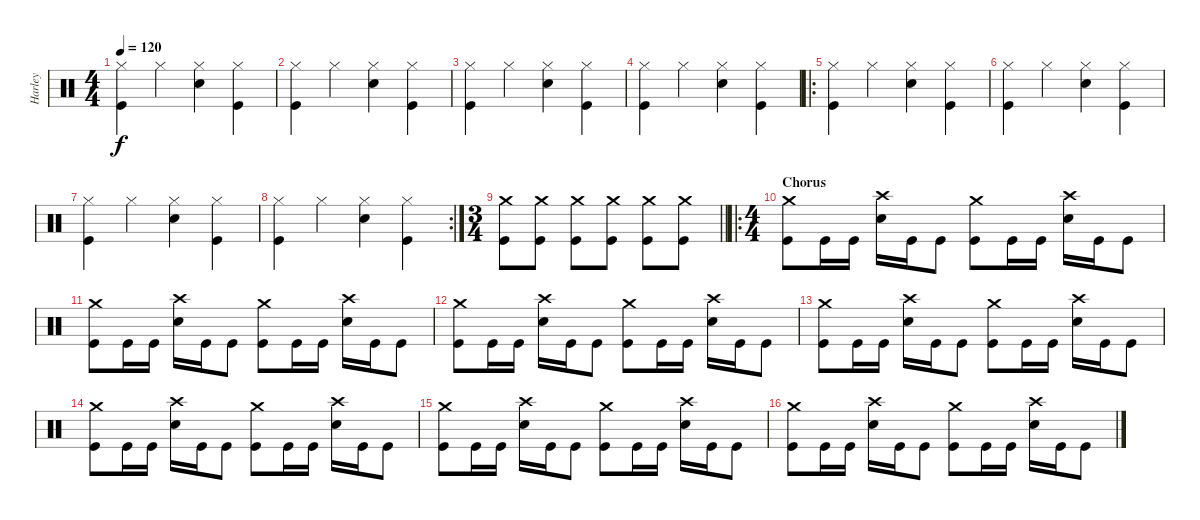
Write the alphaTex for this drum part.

\track ("Harley" "Harley") {instrument percussion}
\staff {score}
\articulation defaults
\ts (4 4)
\tempo 120
\clef neutral
\ks c
("Hi-Hat (closed)" "Kick (hit)").4{dy f} "Hi-Hat (closed)".4 ("Hi-Hat (closed)" "Snare (hit) 2").4 ("Hi-Hat (closed)" "Kick (hit)").4 |
("Hi-Hat (closed)" "Kick (hit)").4 "Hi-Hat (closed)".4 ("Hi-Hat (closed)" "Snare (hit) 2").4 ("Hi-Hat (closed)" "Kick (hit)").4 |
("Hi-Hat (closed)" "Kick (hit)").4 "Hi-Hat (closed)".4 ("Hi-Hat (closed)" "Snare (hit) 2").4 ("Hi-Hat (closed)" "Kick (hit)").4 |
("Hi-Hat (closed)" "Kick (hit)").4 "Hi-Hat (closed)".4 ("Hi-Hat (closed)" "Snare (hit) 2").4 ("Hi-Hat (closed)" "Kick (hit)").4 |
\ro
("Hi-Hat (closed)" "Kick (hit)").4 "Hi-Hat (closed)".4 ("Hi-Hat (closed)" "Snare (hit) 2").4 ("Hi-Hat (closed)" "Kick (hit)").4 |
("Hi-Hat (closed)" "Kick (hit)").4 "Hi-Hat (closed)".4 ("Hi-Hat (closed)" "Snare (hit) 2").4 ("Hi-Hat (closed)" "Kick (hit)").4 |
("Hi-Hat (closed)" "Kick (hit)").4 "Hi-Hat (closed)".4 ("Hi-Hat (closed)" "Snare (hit) 2").4 ("Hi-Hat (closed)" "Kick (hit)").4 |
\rc 2
("Hi-Hat (closed)" "Kick (hit)").4 "Hi-Hat (closed)".4 ("Hi-Hat (closed)" "Snare (hit) 2").4 ("Hi-Hat (closed)" "Kick (hit)").4 |
\ts (3 4)
\barLineRight lightlight
("Crash medium (hit)" "Kick (hit)").8 ("Crash medium (hit)" "Kick (hit)").8 ("Crash medium (hit)" "Kick (hit)").8 ("Crash medium (hit)" "Kick (hit)").8 ("Crash medium (hit)" "Kick (hit)").8 ("Crash medium (hit)" "Kick (hit)").8 |
\ro
\ts (4 4)
\section ("" "Chorus")
("Crash medium (hit)" "Kick (hit)").8 "Kick (hit)".16 "Kick (hit)".16 ("Crash high (hit)" "Snare (hit) 2").16 "Kick (hit)".16 "Kick (hit)".8 ("Crash medium (hit)" "Kick (hit)").8 "Kick (hit)".16 "Kick (hit)".16 ("Crash high (hit)" "Snare (hit) 2").16 "Kick (hit)".16 "Kick (hit)".8 |
("Crash medium (hit)" "Kick (hit)").8 "Kick (hit)".16 "Kick (hit)".16 ("Crash high (hit)" "Snare (hit) 2").16 "Kick (hit)".16 "Kick (hit)".8 ("Crash medium (hit)" "Kick (hit)").8 "Kick (hit)".16 "Kick (hit)".16 ("Crash high (hit)" "Snare (hit) 2").16 "Kick (hit)".16 "Kick (hit)".8 |
("Crash medium (hit)" "Kick (hit)").8 "Kick (hit)".16 "Kick (hit)".16 ("Crash high (hit)" "Snare (hit) 2").16 "Kick (hit)".16 "Kick (hit)".8 ("Crash medium (hit)" "Kick (hit)").8 "Kick (hit)".16 "Kick (hit)".16 ("Crash high (hit)" "Snare (hit) 2").16 "Kick (hit)".16 "Kick (hit)".8 |
("Crash medium (hit)" "Kick (hit)").8 "Kick (hit)".16 "Kick (hit)".16 ("Crash high (hit)" "Snare (hit) 2").16 "Kick (hit)".16 "Kick (hit)".8 ("Crash medium (hit)" "Kick (hit)").8 "Kick (hit)".16 "Kick (hit)".16 ("Crash high (hit)" "Snare (hit) 2").16 "Kick (hit)".16 "Kick (hit)".8 |
("Crash medium (hit)" "Kick (hit)").8 "Kick (hit)".16 "Kick (hit)".16 ("Crash high (hit)" "Snare (hit) 2").16 "Kick (hit)".16 "Kick (hit)".8 ("Crash medium (hit)" "Kick (hit)").8 "Kick (hit)".16 "Kick (hit)".16 ("Crash high (hit)" "Snare (hit) 2").16 "Kick (hit)".16 "Kick (hit)".8 |
("Crash medium (hit)" "Kick (hit)").8 "Kick (hit)".16 "Kick (hit)".16 ("Crash high (hit)" "Snare (hit) 2").16 "Kick (hit)".16 "Kick (hit)".8 ("Crash medium (hit)" "Kick (hit)").8 "Kick (hit)".16 "Kick (hit)".16 ("Crash high (hit)" "Snare (hit) 2").16 "Kick (hit)".16 "Kick (hit)".8 |
("Crash medium (hit)" "Kick (hit)").8 "Kick (hit)".16 "Kick (hit)".16 ("Crash high (hit)" "Snare (hit) 2").16 "Kick (hit)".16 "Kick (hit)".8 ("Crash medium (hit)" "Kick (hit)").8 "Kick (hit)".16 "Kick (hit)".16 ("Crash high (hit)" "Snare (hit) 2").16 "Kick (hit)".16 "Kick (hit)".8
